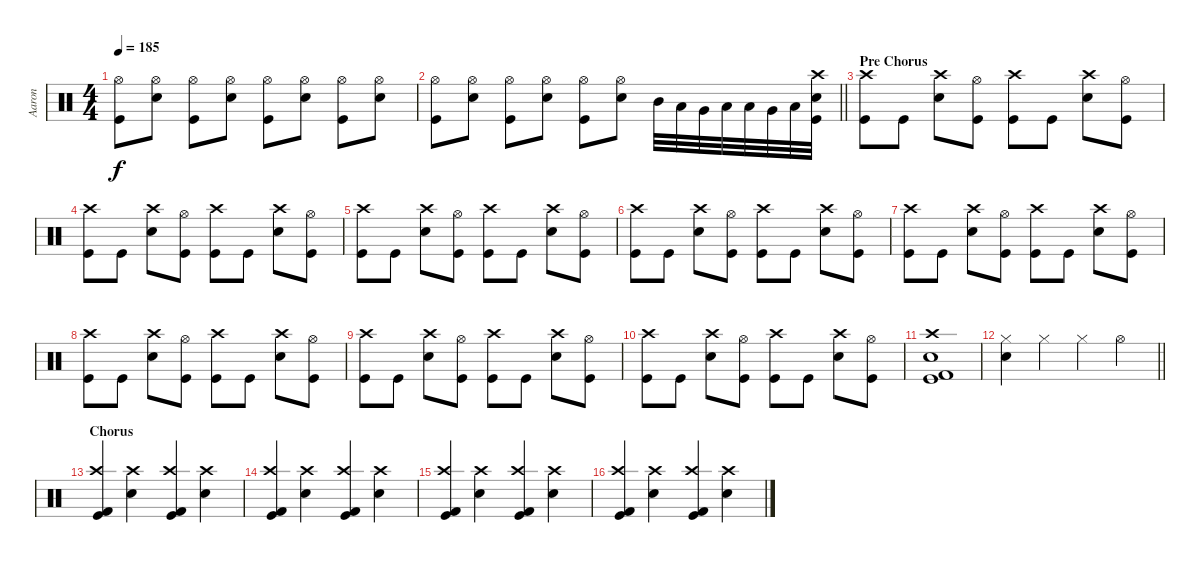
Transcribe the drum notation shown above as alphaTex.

\track ("Aaron" "Aaron") {instrument percussion}
\staff {score}
\articulation defaults
\ts (4 4)
\tempo 185
\clef neutral
\ks c
("Hi-Hat (open)" "Kick (hit)").8{dy f} ("Hi-Hat (open)" "Snare (hit) 2").8 ("Hi-Hat (open)" "Kick (hit)").8 ("Hi-Hat (open)" "Snare (hit) 2").8 ("Hi-Hat (open)" "Kick (hit)").8 ("Hi-Hat (open)" "Snare (hit) 2").8 ("Hi-Hat (open)" "Kick (hit)").8 ("Hi-Hat (open)" "Snare (hit) 2").8 |
\barLineRight lightlight
("Hi-Hat (open)" "Kick (hit)").8 ("Hi-Hat (open)" "Snare (hit) 2").8 ("Hi-Hat (open)" "Kick (hit)").8 ("Hi-Hat (open)" "Snare (hit) 2").8 ("Hi-Hat (open)" "Kick (hit)").8 ("Hi-Hat (open)" "Snare (hit) 2").8 "Mid Tom (hit)".32 "Low Tom (hit)".32 "Very Low Tom (hit)".32 "Low Floor Tom (hit)".32 "Low Tom (hit)".32 "Very Low Tom (hit)".32 "Low Floor Tom (hit)".32 ("Kick (hit)" "Snare (hit) 2" "Crash high (hit)").32 |
\section ("" "Pre Chorus")
("Crash high (hit)" "Kick (hit)").8 "Kick (hit)".8 ("Crash high (hit)" "Snare (hit) 2").8 ("Hi-Hat (open)" "Kick (hit)").8 ("Crash high (hit)" "Kick (hit)").8 "Kick (hit)".8 ("Crash high (hit)" "Snare (hit) 2").8 ("Hi-Hat (open)" "Kick (hit)").8 |
("Crash high (hit)" "Kick (hit)").8 "Kick (hit)".8 ("Crash high (hit)" "Snare (hit) 2").8 ("Hi-Hat (open)" "Kick (hit)").8 ("Crash high (hit)" "Kick (hit)").8 "Kick (hit)".8 ("Crash high (hit)" "Snare (hit) 2").8 ("Hi-Hat (open)" "Kick (hit)").8 |
("Crash high (hit)" "Kick (hit)").8 "Kick (hit)".8 ("Crash high (hit)" "Snare (hit) 2").8 ("Hi-Hat (open)" "Kick (hit)").8 ("Crash high (hit)" "Kick (hit)").8 "Kick (hit)".8 ("Crash high (hit)" "Snare (hit) 2").8 ("Hi-Hat (open)" "Kick (hit)").8 |
("Crash high (hit)" "Kick (hit)").8 "Kick (hit)".8 ("Crash high (hit)" "Snare (hit) 2").8 ("Hi-Hat (open)" "Kick (hit)").8 ("Crash high (hit)" "Kick (hit)").8 "Kick (hit)".8 ("Crash high (hit)" "Snare (hit) 2").8 ("Hi-Hat (open)" "Kick (hit)").8 |
("Crash high (hit)" "Kick (hit)").8 "Kick (hit)".8 ("Crash high (hit)" "Snare (hit) 2").8 ("Hi-Hat (open)" "Kick (hit)").8 ("Crash high (hit)" "Kick (hit)").8 "Kick (hit)".8 ("Crash high (hit)" "Snare (hit) 2").8 ("Hi-Hat (open)" "Kick (hit)").8 |
("Crash high (hit)" "Kick (hit)").8 "Kick (hit)".8 ("Crash high (hit)" "Snare (hit) 2").8 ("Hi-Hat (open)" "Kick (hit)").8 ("Crash high (hit)" "Kick (hit)").8 "Kick (hit)".8 ("Crash high (hit)" "Snare (hit) 2").8 ("Hi-Hat (open)" "Kick (hit)").8 |
("Crash high (hit)" "Kick (hit)").8 "Kick (hit)".8 ("Crash high (hit)" "Snare (hit) 2").8 ("Hi-Hat (open)" "Kick (hit)").8 ("Crash high (hit)" "Kick (hit)").8 "Kick (hit)".8 ("Crash high (hit)" "Snare (hit) 2").8 ("Hi-Hat (open)" "Kick (hit)").8 |
("Crash high (hit)" "Kick (hit)").8 "Kick (hit)".8 ("Crash high (hit)" "Snare (hit) 2").8 ("Hi-Hat (open)" "Kick (hit)").8 ("Crash high (hit)" "Kick (hit)").8 "Kick (hit)".8 ("Crash high (hit)" "Snare (hit) 2").8 ("Hi-Hat (open)" "Kick (hit)").8 |
("Crash high (hit)" "Snare (hit) 2" "Kick (hit) 2" "Kick (hit)").1 |
\barLineRight lightlight
("Hi-Hat (closed)" "Electric Snare (hit)").4 "Hi-Hat (closed)".4 "Hi-Hat (closed)".4 "Hi-Hat (open)".4 |
\section ("" "Chorus")
("Crash high (hit)" "Kick (hit)" "Kick (hit) 2").4 ("Crash high (hit)" "Snare (hit) 2").4 ("Crash high (hit)" "Kick (hit)" "Kick (hit) 2").4 ("Crash high (hit)" "Snare (hit) 2").4 |
("Crash high (hit)" "Kick (hit)" "Kick (hit) 2").4 ("Crash high (hit)" "Snare (hit) 2").4 ("Crash high (hit)" "Kick (hit)" "Kick (hit) 2").4 ("Crash high (hit)" "Snare (hit) 2").4 |
("Crash high (hit)" "Kick (hit)" "Kick (hit) 2").4 ("Crash high (hit)" "Snare (hit) 2").4 ("Crash high (hit)" "Kick (hit)" "Kick (hit) 2").4 ("Crash high (hit)" "Snare (hit) 2").4 |
("Crash high (hit)" "Kick (hit)" "Kick (hit) 2").4 ("Crash high (hit)" "Snare (hit) 2").4 ("Crash high (hit)" "Kick (hit)" "Kick (hit) 2").4 ("Crash high (hit)" "Snare (hit) 2").4
